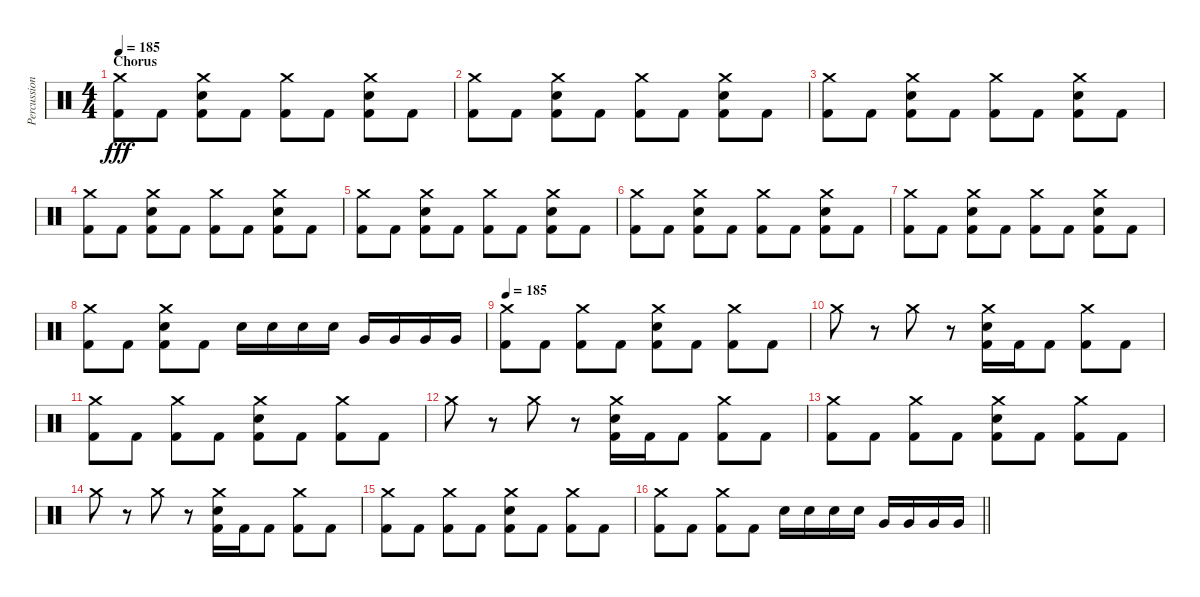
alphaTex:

\track ("Percussion" "Percussion") {instrument percussion}
\staff {score}
\articulation defaults
\ts (4 4)
\section ("" "Chorus")
\tempo 185
\clef neutral
\ks c
("Crash medium (hit)" "Kick (hit) 2").8{dy fff} "Kick (hit) 2".8 ("Crash medium (hit)" "Electric Snare (hit)" "Kick (hit) 2").8 "Kick (hit) 2".8 ("Crash medium (hit)" "Kick (hit) 2").8 "Kick (hit) 2".8 ("Crash medium (hit)" "Electric Snare (hit)" "Kick (hit) 2").8 "Kick (hit) 2".8 |
("Crash medium (hit)" "Kick (hit) 2").8 "Kick (hit) 2".8 ("Crash medium (hit)" "Electric Snare (hit)" "Kick (hit) 2").8 "Kick (hit) 2".8 ("Crash medium (hit)" "Kick (hit) 2").8 "Kick (hit) 2".8 ("Crash medium (hit)" "Electric Snare (hit)" "Kick (hit) 2").8 "Kick (hit) 2".8 |
("Crash medium (hit)" "Kick (hit) 2").8 "Kick (hit) 2".8 ("Crash medium (hit)" "Electric Snare (hit)" "Kick (hit) 2").8 "Kick (hit) 2".8 ("Crash medium (hit)" "Kick (hit) 2").8 "Kick (hit) 2".8 ("Crash medium (hit)" "Electric Snare (hit)" "Kick (hit) 2").8 "Kick (hit) 2".8 |
("Crash medium (hit)" "Kick (hit) 2").8 "Kick (hit) 2".8 ("Crash medium (hit)" "Electric Snare (hit)" "Kick (hit) 2").8 "Kick (hit) 2".8 ("Crash medium (hit)" "Kick (hit) 2").8 "Kick (hit) 2".8 ("Crash medium (hit)" "Electric Snare (hit)" "Kick (hit) 2").8 "Kick (hit) 2".8 |
("Crash medium (hit)" "Kick (hit) 2").8 "Kick (hit) 2".8 ("Crash medium (hit)" "Electric Snare (hit)" "Kick (hit) 2").8 "Kick (hit) 2".8 ("Crash medium (hit)" "Kick (hit) 2").8 "Kick (hit) 2".8 ("Crash medium (hit)" "Electric Snare (hit)" "Kick (hit) 2").8 "Kick (hit) 2".8 |
("Crash medium (hit)" "Kick (hit) 2").8 "Kick (hit) 2".8 ("Crash medium (hit)" "Electric Snare (hit)" "Kick (hit) 2").8 "Kick (hit) 2".8 ("Crash medium (hit)" "Kick (hit) 2").8 "Kick (hit) 2".8 ("Crash medium (hit)" "Electric Snare (hit)" "Kick (hit) 2").8 "Kick (hit) 2".8 |
("Crash medium (hit)" "Kick (hit) 2").8 "Kick (hit) 2".8 ("Crash medium (hit)" "Electric Snare (hit)" "Kick (hit) 2").8 "Kick (hit) 2".8 ("Crash medium (hit)" "Kick (hit) 2").8 "Kick (hit) 2".8 ("Crash medium (hit)" "Electric Snare (hit)" "Kick (hit) 2").8 "Kick (hit) 2".8 |
("Crash medium (hit)" "Kick (hit) 2").8 "Kick (hit) 2".8 ("Crash medium (hit)" "Electric Snare (hit)" "Kick (hit) 2").8 "Kick (hit) 2".8 "Electric Snare (hit)".16 "Electric Snare (hit)".16 "Electric Snare (hit)".16 "Electric Snare (hit)".16 "Very Low Tom (hit)".16 "Very Low Tom (hit)".16 "Very Low Tom (hit)".16 "Very Low Tom (hit)".16 |
\tempo 185
("Crash medium (hit)" "Kick (hit) 2").8 "Kick (hit) 2".8 ("Crash medium (hit)" "Kick (hit) 2").8 "Kick (hit) 2".8 ("Crash medium (hit)" "Electric Snare (hit)" "Kick (hit) 2").8 "Kick (hit) 2".8 ("Crash medium (hit)" "Kick (hit) 2").8 "Kick (hit) 2".8 |
"Crash medium (hit)".8 r.8 "Crash medium (hit)".8 r.8 ("Crash medium (hit)" "Electric Snare (hit)" "Kick (hit) 2").16 "Kick (hit) 2".16 "Kick (hit) 2".8 ("Crash medium (hit)" "Kick (hit) 2").8 "Kick (hit) 2".8 |
("Crash medium (hit)" "Kick (hit) 2").8 "Kick (hit) 2".8 ("Crash medium (hit)" "Kick (hit) 2").8 "Kick (hit) 2".8 ("Crash medium (hit)" "Electric Snare (hit)" "Kick (hit) 2").8 "Kick (hit) 2".8 ("Crash medium (hit)" "Kick (hit) 2").8 "Kick (hit) 2".8 |
"Crash medium (hit)".8 r.8 "Crash medium (hit)".8 r.8 ("Crash medium (hit)" "Electric Snare (hit)" "Kick (hit) 2").16 "Kick (hit) 2".16 "Kick (hit) 2".8 ("Crash medium (hit)" "Kick (hit) 2").8 "Kick (hit) 2".8 |
("Crash medium (hit)" "Kick (hit) 2").8 "Kick (hit) 2".8 ("Crash medium (hit)" "Kick (hit) 2").8 "Kick (hit) 2".8 ("Crash medium (hit)" "Electric Snare (hit)" "Kick (hit) 2").8 "Kick (hit) 2".8 ("Crash medium (hit)" "Kick (hit) 2").8 "Kick (hit) 2".8 |
"Crash medium (hit)".8 r.8 "Crash medium (hit)".8 r.8 ("Crash medium (hit)" "Electric Snare (hit)" "Kick (hit) 2").16 "Kick (hit) 2".16 "Kick (hit) 2".8 ("Crash medium (hit)" "Kick (hit) 2").8 "Kick (hit) 2".8 |
("Crash medium (hit)" "Kick (hit) 2").8 "Kick (hit) 2".8 ("Crash medium (hit)" "Kick (hit) 2").8 "Kick (hit) 2".8 ("Crash medium (hit)" "Electric Snare (hit)" "Kick (hit) 2").8 "Kick (hit) 2".8 ("Crash medium (hit)" "Kick (hit) 2").8 "Kick (hit) 2".8 |
\barLineRight lightlight
("Crash medium (hit)" "Kick (hit) 2").8 "Kick (hit) 2".8 ("Crash medium (hit)" "Kick (hit) 2").8 "Kick (hit) 2".8 "Electric Snare (hit)".16 "Electric Snare (hit)".16 "Electric Snare (hit)".16 "Electric Snare (hit)".16 "Very Low Tom (hit)".16 "Very Low Tom (hit)".16 "Very Low Tom (hit)".16 "Very Low Tom (hit)".16
